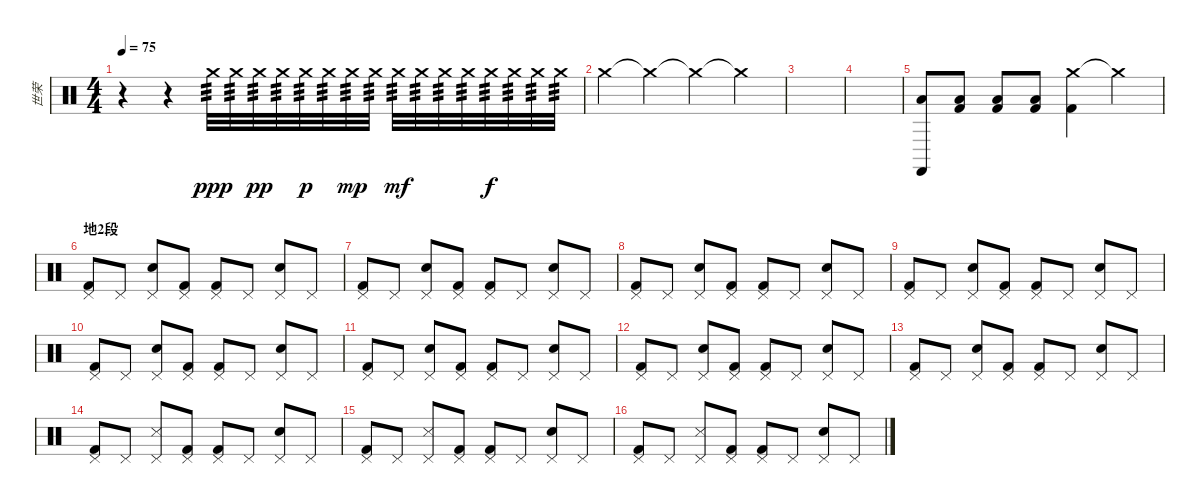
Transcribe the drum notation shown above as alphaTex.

\track ("世荣" "世荣") {instrument percussion}
\staff {score}
\articulation defaults
\ts (4 4)
\tempo 75
\clef neutral
\ks c
r.4{dy f} r.4 "Crash medium (hit)".32{tp 3 dy ppp} "Crash medium (hit)".32{tp 3} "Crash medium (hit)".32{tp 3 dy pp} "Crash medium (hit)".32{tp 3} "Crash medium (hit)".32{tp 3 dy p} "Crash medium (hit)".32{tp 3} "Crash medium (hit)".32{tp 3 dy mp} "Crash medium (hit)".32{tp 3} "Crash medium (hit)".32{tp 3 dy mf} "Crash medium (hit)".32{tp 3} "Crash medium (hit)".32{tp 3} "Crash medium (hit)".32{tp 3} "Crash medium (hit)".32{tp 3 dy f} "Crash medium (hit)".32{tp 3} "Crash medium (hit)".32{tp 3} "Crash medium (hit)".32{tp 3} |
"Crash medium (hit)".4 "Crash medium (hit)"{t}.4 "Crash medium (hit)"{t}.4 "Crash medium (hit)"{t}.4 |
|
|
("Castanets (hit)" "Low Floor Tom (hit)").8 ("Kick (hit) 2" "Low Floor Tom (hit)").8 ("Kick (hit) 2" "Low Floor Tom (hit)").8 ("Kick (hit) 2" "Low Floor Tom (hit)").8 ("Crash medium (hit)" "Kick (hit) 2").4 "Crash medium (hit)"{t}.4 |
\section ("" "地2段")
("Pedal Hi-Hat (hit)" "Kick (hit) 2").8 "Pedal Hi-Hat (hit)".8 ("Pedal Hi-Hat (hit)" "Electric Snare (hit)").8 ("Pedal Hi-Hat (hit)" "Kick (hit) 2").8 ("Pedal Hi-Hat (hit)" "Kick (hit) 2").8 "Pedal Hi-Hat (hit)".8 ("Pedal Hi-Hat (hit)" "Electric Snare (hit)").8 "Pedal Hi-Hat (hit)".8 |
("Pedal Hi-Hat (hit)" "Kick (hit) 2").8 "Pedal Hi-Hat (hit)".8 ("Pedal Hi-Hat (hit)" "Electric Snare (hit)").8 ("Pedal Hi-Hat (hit)" "Kick (hit) 2").8 ("Pedal Hi-Hat (hit)" "Kick (hit) 2").8 "Pedal Hi-Hat (hit)".8 ("Pedal Hi-Hat (hit)" "Electric Snare (hit)").8 "Pedal Hi-Hat (hit)".8 |
("Pedal Hi-Hat (hit)" "Kick (hit) 2").8 "Pedal Hi-Hat (hit)".8 ("Pedal Hi-Hat (hit)" "Electric Snare (hit)").8 ("Pedal Hi-Hat (hit)" "Kick (hit) 2").8 ("Pedal Hi-Hat (hit)" "Kick (hit) 2").8 "Pedal Hi-Hat (hit)".8 ("Pedal Hi-Hat (hit)" "Electric Snare (hit)").8 "Pedal Hi-Hat (hit)".8 |
("Pedal Hi-Hat (hit)" "Kick (hit) 2").8 "Pedal Hi-Hat (hit)".8 ("Pedal Hi-Hat (hit)" "Electric Snare (hit)").8 ("Pedal Hi-Hat (hit)" "Kick (hit) 2").8 ("Pedal Hi-Hat (hit)" "Kick (hit) 2").8 "Pedal Hi-Hat (hit)".8 ("Pedal Hi-Hat (hit)" "Electric Snare (hit)").8 "Pedal Hi-Hat (hit)".8 |
("Pedal Hi-Hat (hit)" "Kick (hit) 2").8 "Pedal Hi-Hat (hit)".8 ("Pedal Hi-Hat (hit)" "Electric Snare (hit)").8 ("Pedal Hi-Hat (hit)" "Kick (hit) 2").8 ("Pedal Hi-Hat (hit)" "Kick (hit) 2").8 "Pedal Hi-Hat (hit)".8 ("Pedal Hi-Hat (hit)" "Electric Snare (hit)").8 "Pedal Hi-Hat (hit)".8 |
("Pedal Hi-Hat (hit)" "Kick (hit) 2").8 "Pedal Hi-Hat (hit)".8 ("Pedal Hi-Hat (hit)" "Electric Snare (hit)").8 ("Pedal Hi-Hat (hit)" "Kick (hit) 2").8 ("Pedal Hi-Hat (hit)" "Kick (hit) 2").8 "Pedal Hi-Hat (hit)".8 ("Pedal Hi-Hat (hit)" "Electric Snare (hit)").8 "Pedal Hi-Hat (hit)".8 |
("Pedal Hi-Hat (hit)" "Kick (hit) 2").8 "Pedal Hi-Hat (hit)".8 ("Pedal Hi-Hat (hit)" "Electric Snare (hit)").8 ("Pedal Hi-Hat (hit)" "Kick (hit) 2").8 ("Pedal Hi-Hat (hit)" "Kick (hit) 2").8 "Pedal Hi-Hat (hit)".8 ("Pedal Hi-Hat (hit)" "Electric Snare (hit)").8 "Pedal Hi-Hat (hit)".8 |
("Pedal Hi-Hat (hit)" "Kick (hit) 2").8 "Pedal Hi-Hat (hit)".8 ("Pedal Hi-Hat (hit)" "Electric Snare (hit)").8 ("Pedal Hi-Hat (hit)" "Kick (hit) 2").8 ("Pedal Hi-Hat (hit)" "Kick (hit) 2").8 "Pedal Hi-Hat (hit)".8 ("Pedal Hi-Hat (hit)" "Electric Snare (hit)").8 "Pedal Hi-Hat (hit)".8 |
("Pedal Hi-Hat (hit)" "Kick (hit) 2").8 "Pedal Hi-Hat (hit)".8 ("Pedal Hi-Hat (hit)" "Snare (side stick) 3").8 ("Pedal Hi-Hat (hit)" "Kick (hit) 2").8 ("Pedal Hi-Hat (hit)" "Kick (hit) 2").8 "Pedal Hi-Hat (hit)".8 ("Pedal Hi-Hat (hit)" "Electric Snare (hit)").8 "Pedal Hi-Hat (hit)".8 |
("Pedal Hi-Hat (hit)" "Kick (hit) 2").8 "Pedal Hi-Hat (hit)".8 ("Pedal Hi-Hat (hit)" "Snare (side stick) 3").8 ("Pedal Hi-Hat (hit)" "Kick (hit) 2").8 ("Pedal Hi-Hat (hit)" "Kick (hit) 2").8 "Pedal Hi-Hat (hit)".8 ("Pedal Hi-Hat (hit)" "Electric Snare (hit)").8 "Pedal Hi-Hat (hit)".8 |
("Pedal Hi-Hat (hit)" "Kick (hit) 2").8 "Pedal Hi-Hat (hit)".8 ("Pedal Hi-Hat (hit)" "Snare (side stick) 3").8 ("Pedal Hi-Hat (hit)" "Kick (hit) 2").8 ("Pedal Hi-Hat (hit)" "Kick (hit) 2").8 "Pedal Hi-Hat (hit)".8 ("Pedal Hi-Hat (hit)" "Electric Snare (hit)").8 "Pedal Hi-Hat (hit)".8
